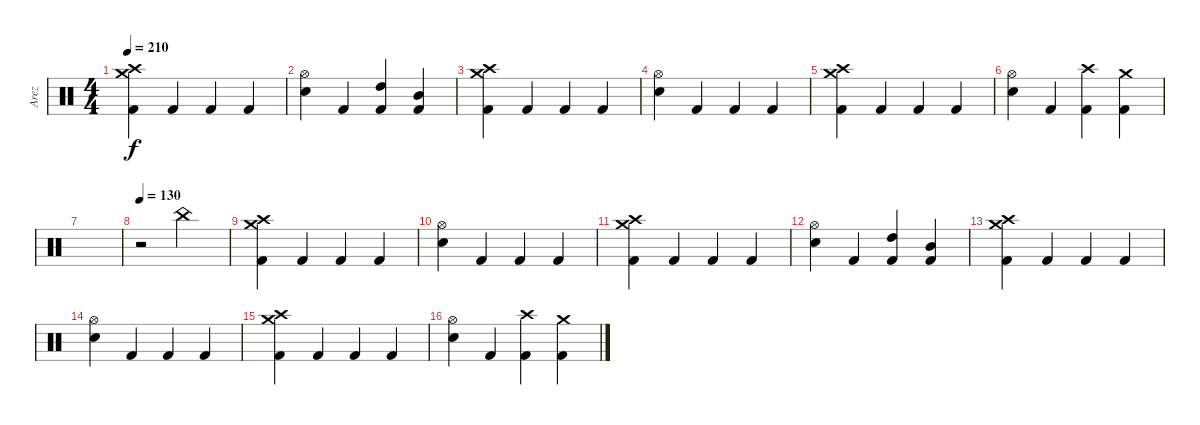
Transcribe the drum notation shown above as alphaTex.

\track ("Arez" "Arez") {instrument percussion}
\staff {score}
\articulation defaults
\ts (4 4)
\tempo 210
\clef neutral
\ks c
("Crash high (hit)" "Crash medium (hit)" "Kick (hit) 2").4{dy f} "Kick (hit) 2".4 "Kick (hit) 2".4 "Kick (hit) 2".4 |
("Hi-Hat (open)" "Electric Snare (hit)").4 "Kick (hit) 2".4 ("Kick (hit) 2" "High Tom (hit)").4 ("Kick (hit) 2" "Mid Tom (hit)").4 |
("Crash high (hit)" "Crash medium (hit)" "Kick (hit) 2").4 "Kick (hit) 2".4 "Kick (hit) 2".4 "Kick (hit) 2".4 |
("Hi-Hat (open)" "Electric Snare (hit)").4 "Kick (hit) 2".4 "Kick (hit) 2".4 "Kick (hit) 2".4 |
("Crash high (hit)" "Crash medium (hit)" "Kick (hit) 2").4 "Kick (hit) 2".4 "Kick (hit) 2".4 "Kick (hit) 2".4 |
("Hi-Hat (open)" "Electric Snare (hit)").4 "Kick (hit) 2".4 ("Kick (hit) 2" "Crash high (hit)").4 ("Kick (hit) 2" "Crash medium (hit)").4 |
|
\tempo 130
r.2 "China (hit)".2 |
("Crash high (hit)" "Crash medium (hit)" "Kick (hit) 2").4 "Kick (hit) 2".4 "Kick (hit) 2".4 "Kick (hit) 2".4 |
("Hi-Hat (open)" "Electric Snare (hit)").4 "Kick (hit) 2".4 "Kick (hit) 2".4 "Kick (hit) 2".4 |
("Crash high (hit)" "Crash medium (hit)" "Kick (hit) 2").4 "Kick (hit) 2".4 "Kick (hit) 2".4 "Kick (hit) 2".4 |
("Hi-Hat (open)" "Electric Snare (hit)").4 "Kick (hit) 2".4 ("Kick (hit) 2" "High Tom (hit)").4 ("Kick (hit) 2" "Mid Tom (hit)").4 |
("Crash high (hit)" "Crash medium (hit)" "Kick (hit) 2").4 "Kick (hit) 2".4 "Kick (hit) 2".4 "Kick (hit) 2".4 |
("Hi-Hat (open)" "Electric Snare (hit)").4 "Kick (hit) 2".4 "Kick (hit) 2".4 "Kick (hit) 2".4 |
("Crash high (hit)" "Crash medium (hit)" "Kick (hit) 2").4 "Kick (hit) 2".4 "Kick (hit) 2".4 "Kick (hit) 2".4 |
("Hi-Hat (open)" "Electric Snare (hit)").4 "Kick (hit) 2".4 ("Kick (hit) 2" "Crash high (hit)").4 ("Kick (hit) 2" "Crash medium (hit)").4
